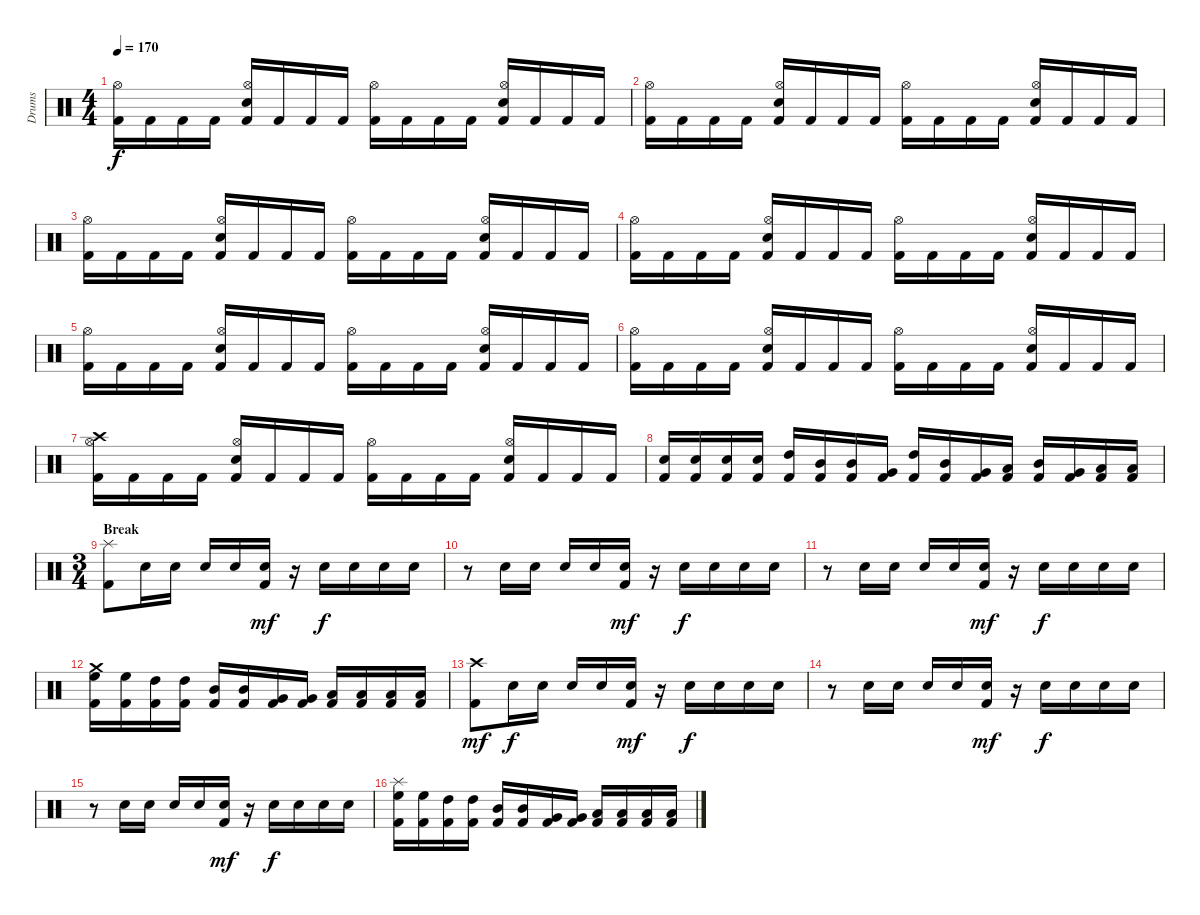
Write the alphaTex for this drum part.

\track ("Drums" "Drums") {instrument percussion}
\staff {score}
\articulation defaults
\ts (4 4)
\tempo 170
\clef neutral
\ks c
("Kick (hit) 2" "Hi-Hat (open)").16{dy f} "Kick (hit) 2".16 "Kick (hit) 2".16 "Kick (hit) 2".16 ("Kick (hit) 2" "Snare (hit) 2" "Hi-Hat (open)").16 "Kick (hit) 2".16 "Kick (hit) 2".16 "Kick (hit) 2".16 ("Kick (hit) 2" "Hi-Hat (open)").16 "Kick (hit) 2".16 "Kick (hit) 2".16 "Kick (hit) 2".16 ("Kick (hit) 2" "Snare (hit) 2" "Hi-Hat (open)").16 "Kick (hit) 2".16 "Kick (hit) 2".16 "Kick (hit) 2".16 |
("Kick (hit) 2" "Hi-Hat (open)").16 "Kick (hit) 2".16 "Kick (hit) 2".16 "Kick (hit) 2".16 ("Kick (hit) 2" "Snare (hit) 2" "Hi-Hat (open)").16 "Kick (hit) 2".16 "Kick (hit) 2".16 "Kick (hit) 2".16 ("Kick (hit) 2" "Hi-Hat (open)").16 "Kick (hit) 2".16 "Kick (hit) 2".16 "Kick (hit) 2".16 ("Kick (hit) 2" "Snare (hit) 2" "Hi-Hat (open)").16 "Kick (hit) 2".16 "Kick (hit) 2".16 "Kick (hit) 2".16 |
("Kick (hit) 2" "Hi-Hat (open)").16 "Kick (hit) 2".16 "Kick (hit) 2".16 "Kick (hit) 2".16 ("Kick (hit) 2" "Snare (hit) 2" "Hi-Hat (open)").16 "Kick (hit) 2".16 "Kick (hit) 2".16 "Kick (hit) 2".16 ("Kick (hit) 2" "Hi-Hat (open)").16 "Kick (hit) 2".16 "Kick (hit) 2".16 "Kick (hit) 2".16 ("Kick (hit) 2" "Snare (hit) 2" "Hi-Hat (open)").16 "Kick (hit) 2".16 "Kick (hit) 2".16 "Kick (hit) 2".16 |
("Kick (hit) 2" "Hi-Hat (open)").16 "Kick (hit) 2".16 "Kick (hit) 2".16 "Kick (hit) 2".16 ("Kick (hit) 2" "Snare (hit) 2" "Hi-Hat (open)").16 "Kick (hit) 2".16 "Kick (hit) 2".16 "Kick (hit) 2".16 ("Kick (hit) 2" "Hi-Hat (open)").16 "Kick (hit) 2".16 "Kick (hit) 2".16 "Kick (hit) 2".16 ("Kick (hit) 2" "Snare (hit) 2" "Hi-Hat (open)").16 "Kick (hit) 2".16 "Kick (hit) 2".16 "Kick (hit) 2".16 |
("Kick (hit) 2" "Hi-Hat (open)").16 "Kick (hit) 2".16 "Kick (hit) 2".16 "Kick (hit) 2".16 ("Kick (hit) 2" "Snare (hit) 2" "Hi-Hat (open)").16 "Kick (hit) 2".16 "Kick (hit) 2".16 "Kick (hit) 2".16 ("Kick (hit) 2" "Hi-Hat (open)").16 "Kick (hit) 2".16 "Kick (hit) 2".16 "Kick (hit) 2".16 ("Kick (hit) 2" "Snare (hit) 2" "Hi-Hat (open)").16 "Kick (hit) 2".16 "Kick (hit) 2".16 "Kick (hit) 2".16 |
("Kick (hit) 2" "Hi-Hat (open)").16 "Kick (hit) 2".16 "Kick (hit) 2".16 "Kick (hit) 2".16 ("Kick (hit) 2" "Snare (hit) 2" "Hi-Hat (open)").16 "Kick (hit) 2".16 "Kick (hit) 2".16 "Kick (hit) 2".16 ("Kick (hit) 2" "Hi-Hat (open)").16 "Kick (hit) 2".16 "Kick (hit) 2".16 "Kick (hit) 2".16 ("Kick (hit) 2" "Snare (hit) 2" "Hi-Hat (open)").16 "Kick (hit) 2".16 "Kick (hit) 2".16 "Kick (hit) 2".16 |
("Kick (hit) 2" "Hi-Hat (open)" "Crash high (hit)").16 "Kick (hit) 2".16 "Kick (hit) 2".16 "Kick (hit) 2".16 ("Kick (hit) 2" "Snare (hit) 2" "Hi-Hat (open)").16 "Kick (hit) 2".16 "Kick (hit) 2".16 "Kick (hit) 2".16 ("Kick (hit) 2" "Hi-Hat (open)").16 "Kick (hit) 2".16 "Kick (hit) 2".16 "Kick (hit) 2".16 ("Kick (hit) 2" "Snare (hit) 2" "Hi-Hat (open)").16 "Kick (hit) 2".16 "Kick (hit) 2".16 "Kick (hit) 2".16 |
("Kick (hit) 2" "Snare (hit) 2").16 ("Kick (hit) 2" "Snare (hit) 2").16 ("Kick (hit) 2" "Snare (hit) 2").16 ("Kick (hit) 2" "Snare (hit) 2").16 ("Kick (hit) 2" "High Tom (hit)").16 ("Kick (hit) 2" "Mid Tom (hit)").16 ("Kick (hit) 2" "Mid Tom (hit)").16 ("Kick (hit) 2" "Very Low Tom (hit)").16 ("Kick (hit) 2" "High Tom (hit)").16 ("Kick (hit) 2" "Mid Tom (hit)").16 ("Kick (hit) 2" "Very Low Tom (hit)").16 ("Kick (hit) 2" "Low Floor Tom (hit)").16 ("Kick (hit) 2" "Mid Tom (hit)").16 ("Kick (hit) 2" "Very Low Tom (hit)").16 ("Kick (hit) 2" "Low Floor Tom (hit)").16 ("Kick (hit) 2" "Low Floor Tom (hit)").16 |
\ts (3 4)
\section ("" "Break")
("Kick (hit) 2" "Splash (hit)").8 "Snare (hit) 2".16 "Snare (hit) 2".16 "Snare (hit) 2".16 "Snare (hit) 2".16 ("Kick (hit) 2" "Snare (hit) 2").16{dy mf} r.16 "Snare (hit) 2".16{dy f} "Snare (hit) 2".16 "Snare (hit) 2".16 "Snare (hit) 2".16 |
r.8 "Snare (hit) 2".16 "Snare (hit) 2".16 "Snare (hit) 2".16 "Snare (hit) 2".16 ("Kick (hit) 2" "Snare (hit) 2").16{dy mf} r.16 "Snare (hit) 2".16{dy f} "Snare (hit) 2".16 "Snare (hit) 2".16 "Snare (hit) 2".16 |
r.8 "Snare (hit) 2".16 "Snare (hit) 2".16 "Snare (hit) 2".16 "Snare (hit) 2".16 ("Kick (hit) 2" "Snare (hit) 2").16{dy mf} r.16 "Snare (hit) 2".16{dy f} "Snare (hit) 2".16 "Snare (hit) 2".16 "Snare (hit) 2".16 |
("Kick (hit) 2" "High Floor Tom (hit)" "Crash medium (hit)").16 ("Kick (hit) 2" "High Floor Tom (hit)").16 ("Kick (hit) 2" "High Tom (hit)").16 ("Kick (hit) 2" "High Tom (hit)").16 ("Kick (hit) 2" "Mid Tom (hit)").16 ("Kick (hit) 2" "Mid Tom (hit)").16 ("Kick (hit) 2" "Very Low Tom (hit)").16 ("Kick (hit) 2" "Very Low Tom (hit)").16 ("Kick (hit) 2" "Low Floor Tom (hit)").16 ("Kick (hit) 2" "Low Floor Tom (hit)").16 ("Kick (hit) 2" "Low Floor Tom (hit)").16 ("Kick (hit) 2" "Low Floor Tom (hit)").16 |
("Kick (hit) 2" "Crash high (hit)").8{dy mf} "Snare (hit) 2".16{dy f} "Snare (hit) 2".16 "Snare (hit) 2".16 "Snare (hit) 2".16 ("Kick (hit) 2" "Snare (hit) 2").16{dy mf} r.16 "Snare (hit) 2".16{dy f} "Snare (hit) 2".16 "Snare (hit) 2".16 "Snare (hit) 2".16 |
r.8 "Snare (hit) 2".16 "Snare (hit) 2".16 "Snare (hit) 2".16 "Snare (hit) 2".16 ("Kick (hit) 2" "Snare (hit) 2").16{dy mf} r.16 "Snare (hit) 2".16{dy f} "Snare (hit) 2".16 "Snare (hit) 2".16 "Snare (hit) 2".16 |
r.8 "Snare (hit) 2".16 "Snare (hit) 2".16 "Snare (hit) 2".16 "Snare (hit) 2".16 ("Kick (hit) 2" "Snare (hit) 2").16{dy mf} r.16 "Snare (hit) 2".16{dy f} "Snare (hit) 2".16 "Snare (hit) 2".16 "Snare (hit) 2".16 |
("Kick (hit) 2" "High Floor Tom (hit)" "Splash (hit)").16 ("Kick (hit) 2" "High Floor Tom (hit)").16 ("Kick (hit) 2" "High Tom (hit)").16 ("Kick (hit) 2" "High Tom (hit)").16 ("Kick (hit) 2" "Mid Tom (hit)").16 ("Kick (hit) 2" "Mid Tom (hit)").16 ("Kick (hit) 2" "Very Low Tom (hit)").16 ("Kick (hit) 2" "Very Low Tom (hit)").16 ("Kick (hit) 2" "Low Floor Tom (hit)").16 ("Kick (hit) 2" "Low Floor Tom (hit)").16 ("Kick (hit) 2" "Low Floor Tom (hit)").16 ("Kick (hit) 2" "Low Floor Tom (hit)").16
